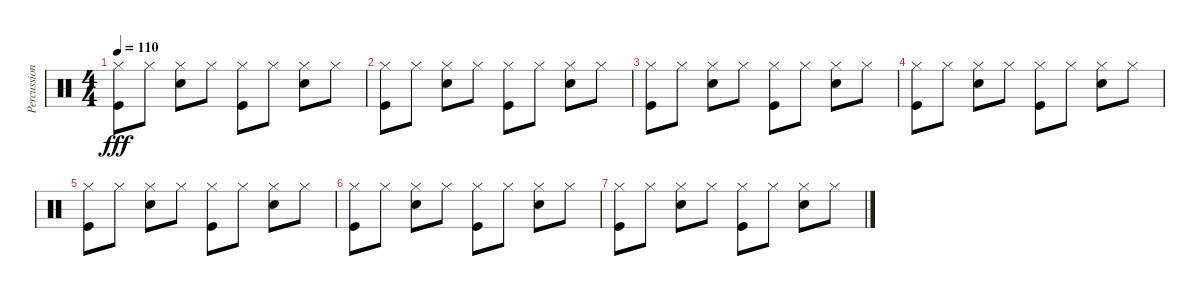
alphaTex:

\track ("Percussion" "Percussion") {instrument percussion}
\staff {score}
\articulation defaults
\ts (4 4)
\tempo 110
\clef neutral
\ks c
("Hi-Hat (closed)" "Kick (hit)").8{dy fff} "Hi-Hat (closed)".8 ("Hi-Hat (closed)" "Snare (hit) 2").8 "Hi-Hat (closed)".8 ("Hi-Hat (closed)" "Kick (hit)").8 "Hi-Hat (closed)".8 ("Hi-Hat (closed)" "Snare (hit) 2").8 "Hi-Hat (closed)".8 |
("Hi-Hat (closed)" "Kick (hit)").8 "Hi-Hat (closed)".8 ("Hi-Hat (closed)" "Snare (hit) 2").8 "Hi-Hat (closed)".8 ("Hi-Hat (closed)" "Kick (hit)").8 "Hi-Hat (closed)".8 ("Hi-Hat (closed)" "Snare (hit) 2").8 "Hi-Hat (closed)".8 |
("Hi-Hat (closed)" "Kick (hit)").8 "Hi-Hat (closed)".8 ("Hi-Hat (closed)" "Snare (hit) 2").8 "Hi-Hat (closed)".8 ("Hi-Hat (closed)" "Kick (hit)").8 "Hi-Hat (closed)".8 ("Hi-Hat (closed)" "Snare (hit) 2").8 "Hi-Hat (closed)".8 |
("Hi-Hat (closed)" "Kick (hit)").8 "Hi-Hat (closed)".8 ("Hi-Hat (closed)" "Snare (hit) 2").8 "Hi-Hat (closed)".8 ("Hi-Hat (closed)" "Kick (hit)").8 "Hi-Hat (closed)".8 ("Hi-Hat (closed)" "Snare (hit) 2").8 "Hi-Hat (closed)".8 |
("Hi-Hat (closed)" "Kick (hit)").8 "Hi-Hat (closed)".8 ("Hi-Hat (closed)" "Snare (hit) 2").8 "Hi-Hat (closed)".8 ("Hi-Hat (closed)" "Kick (hit)").8 "Hi-Hat (closed)".8 ("Hi-Hat (closed)" "Snare (hit) 2").8 "Hi-Hat (closed)".8 |
("Hi-Hat (closed)" "Kick (hit)").8{volume 0} "Hi-Hat (closed)".8 ("Hi-Hat (closed)" "Snare (hit) 2").8 "Hi-Hat (closed)".8 ("Hi-Hat (closed)" "Kick (hit)").8 "Hi-Hat (closed)".8 ("Hi-Hat (closed)" "Snare (hit) 2").8 "Hi-Hat (closed)".8 |
("Hi-Hat (closed)" "Kick (hit)").8 "Hi-Hat (closed)".8 ("Hi-Hat (closed)" "Snare (hit) 2").8 "Hi-Hat (closed)".8 ("Hi-Hat (closed)" "Kick (hit)").8 "Hi-Hat (closed)".8 ("Hi-Hat (closed)" "Snare (hit) 2").8 "Hi-Hat (closed)".8
